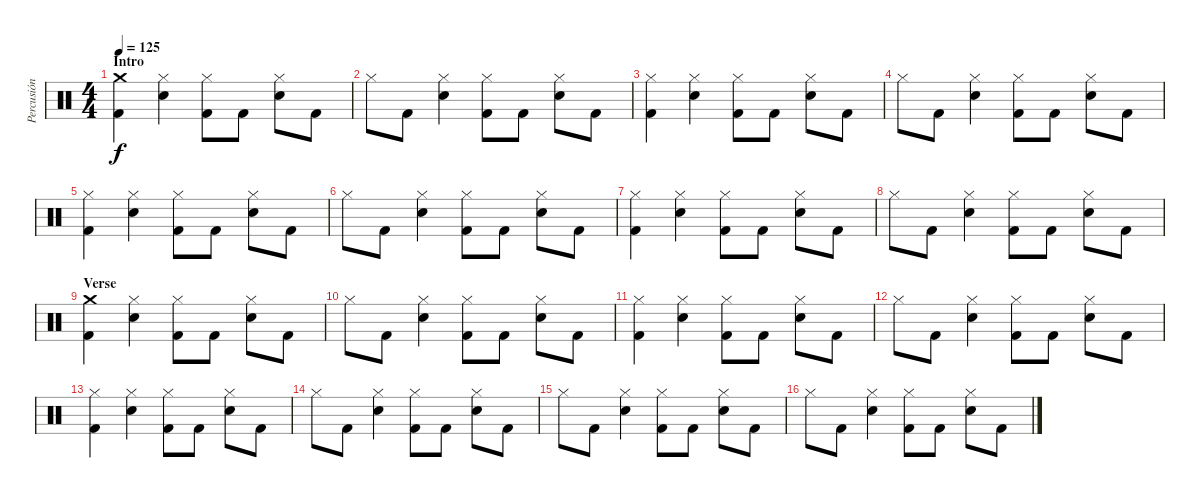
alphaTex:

\track ("Percusión" "Percusión") {instrument percussion}
\staff {score}
\articulation defaults
\ts (4 4)
\section ("" "Intro")
\tempo 125
\clef neutral
\ks c
("Crash medium (hit)" "Kick (hit) 2").4{dy f} ("Snare (hit) 2" "Hi-Hat (closed)").4 ("Kick (hit) 2" "Hi-Hat (closed)").8 "Kick (hit) 2".8 ("Hi-Hat (closed)" "Snare (hit) 2").8 "Kick (hit) 2".8 |
"Hi-Hat (closed)".8 "Kick (hit) 2".8 ("Hi-Hat (closed)" "Snare (hit) 2").4 ("Hi-Hat (closed)" "Kick (hit) 2").8 "Kick (hit) 2".8 ("Hi-Hat (closed)" "Snare (hit) 2").8 "Kick (hit) 2".8 |
("Hi-Hat (closed)" "Kick (hit) 2").4 ("Snare (hit) 2" "Hi-Hat (closed)").4 ("Kick (hit) 2" "Hi-Hat (closed)").8 "Kick (hit) 2".8 ("Hi-Hat (closed)" "Snare (hit) 2").8 "Kick (hit) 2".8 |
"Hi-Hat (closed)".8 "Kick (hit) 2".8 ("Hi-Hat (closed)" "Snare (hit) 2").4 ("Hi-Hat (closed)" "Kick (hit) 2").8 "Kick (hit) 2".8 ("Hi-Hat (closed)" "Snare (hit) 2").8 "Kick (hit) 2".8 |
("Hi-Hat (closed)" "Kick (hit) 2").4 ("Snare (hit) 2" "Hi-Hat (closed)").4 ("Kick (hit) 2" "Hi-Hat (closed)").8 "Kick (hit) 2".8 ("Hi-Hat (closed)" "Snare (hit) 2").8 "Kick (hit) 2".8 |
"Hi-Hat (closed)".8 "Kick (hit) 2".8 ("Hi-Hat (closed)" "Snare (hit) 2").4 ("Hi-Hat (closed)" "Kick (hit) 2").8 "Kick (hit) 2".8 ("Hi-Hat (closed)" "Snare (hit) 2").8 "Kick (hit) 2".8 |
("Hi-Hat (closed)" "Kick (hit) 2").4 ("Snare (hit) 2" "Hi-Hat (closed)").4 ("Kick (hit) 2" "Hi-Hat (closed)").8 "Kick (hit) 2".8 ("Hi-Hat (closed)" "Snare (hit) 2").8 "Kick (hit) 2".8 |
"Hi-Hat (closed)".8 "Kick (hit) 2".8 ("Hi-Hat (closed)" "Snare (hit) 2").4 ("Hi-Hat (closed)" "Kick (hit) 2").8 "Kick (hit) 2".8 ("Hi-Hat (closed)" "Snare (hit) 2").8 "Kick (hit) 2".8 |
\section ("" "Verse")
("Crash medium (hit)" "Kick (hit) 2").4 ("Snare (hit) 2" "Hi-Hat (closed)").4 ("Kick (hit) 2" "Hi-Hat (closed)").8 "Kick (hit) 2".8 ("Hi-Hat (closed)" "Snare (hit) 2").8 "Kick (hit) 2".8 |
"Hi-Hat (closed)".8 "Kick (hit) 2".8 ("Hi-Hat (closed)" "Snare (hit) 2").4 ("Hi-Hat (closed)" "Kick (hit) 2").8 "Kick (hit) 2".8 ("Hi-Hat (closed)" "Snare (hit) 2").8 "Kick (hit) 2".8 |
("Hi-Hat (closed)" "Kick (hit) 2").4 ("Snare (hit) 2" "Hi-Hat (closed)").4 ("Kick (hit) 2" "Hi-Hat (closed)").8 "Kick (hit) 2".8 ("Hi-Hat (closed)" "Snare (hit) 2").8 "Kick (hit) 2".8 |
"Hi-Hat (closed)".8 "Kick (hit) 2".8 ("Hi-Hat (closed)" "Snare (hit) 2").4 ("Hi-Hat (closed)" "Kick (hit) 2").8 "Kick (hit) 2".8 ("Hi-Hat (closed)" "Snare (hit) 2").8 "Kick (hit) 2".8 |
("Hi-Hat (closed)" "Kick (hit) 2").4 ("Snare (hit) 2" "Hi-Hat (closed)").4 ("Kick (hit) 2" "Hi-Hat (closed)").8 "Kick (hit) 2".8 ("Hi-Hat (closed)" "Snare (hit) 2").8 "Kick (hit) 2".8 |
"Hi-Hat (closed)".8 "Kick (hit) 2".8 ("Hi-Hat (closed)" "Snare (hit) 2").4 ("Hi-Hat (closed)" "Kick (hit) 2").8 "Kick (hit) 2".8 ("Hi-Hat (closed)" "Snare (hit) 2").8 "Kick (hit) 2".8 |
"Hi-Hat (closed)".8 "Kick (hit) 2".8 ("Hi-Hat (closed)" "Snare (hit) 2").4 ("Hi-Hat (closed)" "Kick (hit) 2").8 "Kick (hit) 2".8 ("Hi-Hat (closed)" "Snare (hit) 2").8 "Kick (hit) 2".8 |
"Hi-Hat (closed)".8 "Kick (hit) 2".8 ("Hi-Hat (closed)" "Snare (hit) 2").4 ("Hi-Hat (closed)" "Kick (hit) 2").8 "Kick (hit) 2".8 ("Hi-Hat (closed)" "Snare (hit) 2").8 "Kick (hit) 2".8
